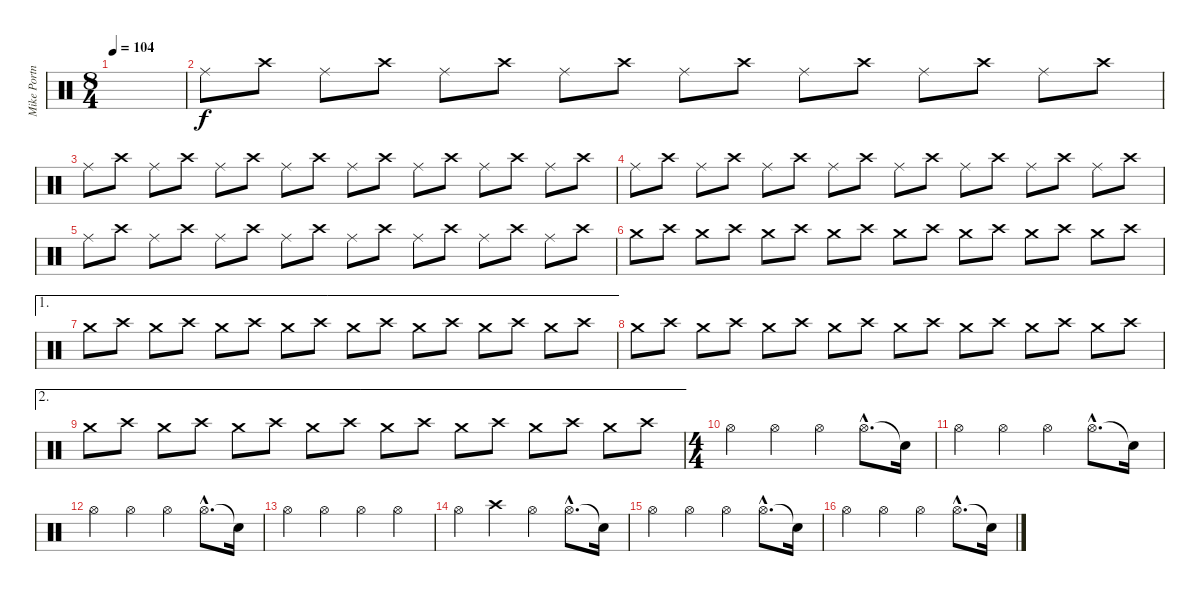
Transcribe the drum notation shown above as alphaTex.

\track ("Mike Portnoy" "Mike Portn") {instrument percussion}
\staff {score}
\articulation defaults
\ts (8 4)
\tempo 104
\clef neutral
\ks c
|
"Ride (middle)".8 "Crash high (hit)".8 "Ride (middle)".8 "Crash high (hit)".8 "Ride (middle)".8 "Crash high (hit)".8 "Ride (middle)".8 "Crash high (hit)".8 "Ride (middle)".8 "Crash high (hit)".8 "Ride (middle)".8 "Crash high (hit)".8 "Ride (middle)".8 "Crash high (hit)".8 "Ride (middle)".8 "Crash high (hit)".8 |
"Ride (middle)".8 "Crash high (hit)".8 "Ride (middle)".8 "Crash high (hit)".8 "Ride (middle)".8 "Crash high (hit)".8 "Ride (middle)".8 "Crash high (hit)".8 "Ride (middle)".8 "Crash high (hit)".8 "Ride (middle)".8 "Crash high (hit)".8 "Ride (middle)".8 "Crash high (hit)".8 "Ride (middle)".8 "Crash high (hit)".8 |
"Ride (middle)".8 "Crash high (hit)".8 "Ride (middle)".8 "Crash high (hit)".8 "Ride (middle)".8 "Crash high (hit)".8 "Ride (middle)".8 "Crash high (hit)".8 "Ride (middle)".8 "Crash high (hit)".8 "Ride (middle)".8 "Crash high (hit)".8 "Ride (middle)".8 "Crash high (hit)".8 "Ride (middle)".8 "Crash high (hit)".8 |
"Ride (middle)".8 "Crash high (hit)".8 "Ride (middle)".8 "Crash high (hit)".8 "Ride (middle)".8 "Crash high (hit)".8 "Ride (middle)".8 "Crash high (hit)".8 "Ride (middle)".8 "Crash high (hit)".8 "Ride (middle)".8 "Crash high (hit)".8 "Ride (middle)".8 "Crash high (hit)".8 "Ride (middle)".8 "Crash high (hit)".8 |
"Crash medium (hit)".8 "Crash high (hit)".8 "Crash medium (hit)".8 "Crash high (hit)".8 "Crash medium (hit)".8 "Crash high (hit)".8 "Crash medium (hit)".8 "Crash high (hit)".8 "Crash medium (hit)".8 "Crash high (hit)".8 "Crash medium (hit)".8 "Crash high (hit)".8 "Crash medium (hit)".8 "Crash high (hit)".8 "Crash medium (hit)".8 "Crash high (hit)".8 |
\ae 1 "Crash medium (hit)".8 "Crash high (hit)".8 "Crash medium (hit)".8 "Crash high (hit)".8 "Crash medium (hit)".8 "Crash high (hit)".8 "Crash medium (hit)".8 "Crash high (hit)".8 "Crash medium (hit)".8 "Crash high (hit)".8 "Crash medium (hit)".8 "Crash high (hit)".8 "Crash medium (hit)".8 "Crash high (hit)".8 "Crash medium (hit)".8 "Crash high (hit)".8
|
"Crash medium (hit)".8 "Crash high (hit)".8 "Crash medium (hit)".8 "Crash high (hit)".8 "Crash medium (hit)".8 "Crash high (hit)".8 "Crash medium (hit)".8 "Crash high (hit)".8 "Crash medium (hit)".8 "Crash high (hit)".8 "Crash medium (hit)".8 "Crash high (hit)".8 "Crash medium (hit)".8 "Crash high (hit)".8 "Crash medium (hit)".8 "Crash high (hit)".8 |
\ae 2 "Crash medium (hit)".8 "Crash high (hit)".8 "Crash medium (hit)".8 "Crash high (hit)".8 "Crash medium (hit)".8 "Crash high (hit)".8 "Crash medium (hit)".8 "Crash high (hit)".8 "Crash medium (hit)".8 "Crash high (hit)".8 "Crash medium (hit)".8 "Crash high (hit)".8 "Crash medium (hit)".8 "Crash high (hit)".8 "Crash medium (hit)".8 "Crash high (hit)".8
|
\ts (4 4)
"Hi-Hat (open)".4 "Hi-Hat (open)".4 "Hi-Hat (open)".4 "Hi-Hat (open)"{hac}.8{d} "Snare (hit)"{t}.16 |
"Hi-Hat (open)".4 "Hi-Hat (open)".4 "Hi-Hat (open)".4 "Hi-Hat (open)"{hac}.8{d} "Snare (hit)"{t}.16 |
"Hi-Hat (open)".4 "Hi-Hat (open)".4 "Hi-Hat (open)".4 "Hi-Hat (open)"{hac}.8{d} "Snare (hit)"{t}.16 |
"Hi-Hat (open)".4 "Hi-Hat (open)".4 "Hi-Hat (open)".4 "Hi-Hat (open)".4 |
"Hi-Hat (open)".4 "Crash high (hit)".4 "Hi-Hat (open)".4 "Hi-Hat (open)"{hac}.8{d} "Snare (hit)"{t}.16 |
"Hi-Hat (open)".4 "Hi-Hat (open)".4 "Hi-Hat (open)".4 "Hi-Hat (open)"{hac}.8{d} "Snare (hit)"{t}.16 |
"Hi-Hat (open)".4 "Hi-Hat (open)".4 "Hi-Hat (open)".4 "Hi-Hat (open)"{hac}.8{d} "Snare (hit)"{t}.16
